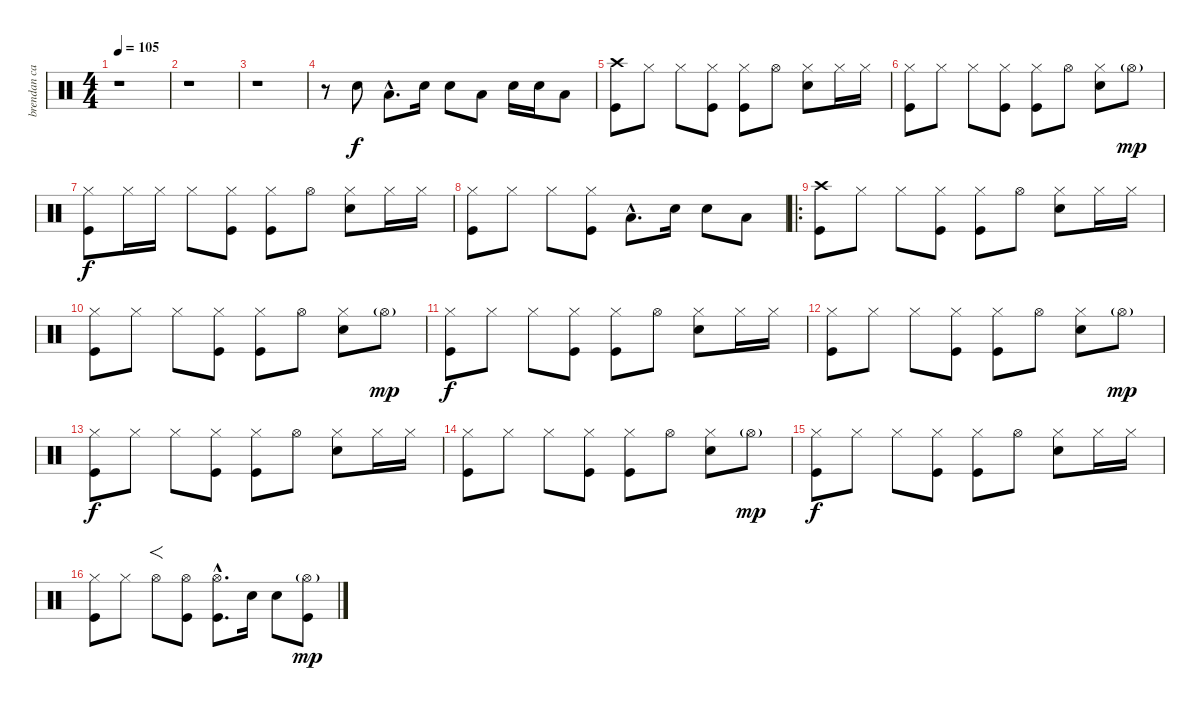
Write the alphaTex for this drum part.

\track ("brendan canty" "brendan ca") {instrument percussion}
\staff {score}
\articulation defaults
\ts (4 4)
\tempo 105
\clef neutral
\ks c
r.1{dy f} |
r.1 |
r.1 |
r.8 "Electric Snare (hit)".8 "Low Tom (hit)"{hac}.8{d} "Electric Snare (hit)".16 "Electric Snare (hit)".8 "Low Tom (hit)".8 "Electric Snare (hit)".16 "Electric Snare (hit)".16 "Low Floor Tom (hit)".8 |
("Crash high (hit)" "Kick (hit)").8 "Hi-Hat (closed)".8 "Hi-Hat (closed)".8 ("Hi-Hat (closed)" "Kick (hit)").8 ("Hi-Hat (closed)" "Kick (hit)").8 "Hi-Hat (open)".8 ("Hi-Hat (closed)" "Electric Snare (hit)").8 "Hi-Hat (closed)".16 "Hi-Hat (closed)".16 |
("Hi-Hat (closed)" "Kick (hit)").8 "Hi-Hat (closed)".8 "Hi-Hat (closed)".8 ("Hi-Hat (closed)" "Kick (hit)").8 ("Hi-Hat (closed)" "Kick (hit)").8 "Hi-Hat (open)".8 ("Hi-Hat (closed)" "Electric Snare (hit)").8 "Hi-Hat (open)"{g}.8{dy mp} |
("Hi-Hat (closed)" "Kick (hit)").8{dy f} "Hi-Hat (closed)".16 "Hi-Hat (closed)".16 "Hi-Hat (closed)".8 ("Hi-Hat (closed)" "Kick (hit)").8 ("Hi-Hat (closed)" "Kick (hit)").8 "Hi-Hat (open)".8 ("Hi-Hat (closed)" "Electric Snare (hit)").8 "Hi-Hat (closed)".16 "Hi-Hat (closed)".16 |
("Hi-Hat (closed)" "Kick (hit)").8 "Hi-Hat (closed)".8 "Hi-Hat (closed)".8 ("Hi-Hat (closed)" "Kick (hit)").8 "Low Tom (hit)"{hac}.8{d} "Electric Snare (hit)".16 "Electric Snare (hit)".8 "Low Floor Tom (hit)".8 |
\ro
("Crash high (hit)" "Kick (hit)").8 "Hi-Hat (closed)".8 "Hi-Hat (closed)".8 ("Hi-Hat (closed)" "Kick (hit)").8 ("Hi-Hat (closed)" "Kick (hit)").8 "Hi-Hat (open)".8 ("Hi-Hat (closed)" "Electric Snare (hit)").8 "Hi-Hat (closed)".16 "Hi-Hat (closed)".16 |
("Hi-Hat (closed)" "Kick (hit)").8 "Hi-Hat (closed)".8 "Hi-Hat (closed)".8 ("Hi-Hat (closed)" "Kick (hit)").8 ("Hi-Hat (closed)" "Kick (hit)").8 "Hi-Hat (open)".8 ("Hi-Hat (closed)" "Electric Snare (hit)").8 "Hi-Hat (open)"{g}.8{dy mp} |
("Hi-Hat (closed)" "Kick (hit)").8{dy f} "Hi-Hat (closed)".8 "Hi-Hat (closed)".8 ("Hi-Hat (closed)" "Kick (hit)").8 ("Hi-Hat (closed)" "Kick (hit)").8 "Hi-Hat (open)".8 ("Hi-Hat (closed)" "Electric Snare (hit)").8 "Hi-Hat (closed)".16 "Hi-Hat (closed)".16 |
("Hi-Hat (closed)" "Kick (hit)").8 "Hi-Hat (closed)".8 "Hi-Hat (closed)".8 ("Hi-Hat (closed)" "Kick (hit)").8 ("Hi-Hat (closed)" "Kick (hit)").8 "Hi-Hat (open)".8 ("Hi-Hat (closed)" "Electric Snare (hit)").8 "Hi-Hat (open)"{g}.8{dy mp} |
("Hi-Hat (closed)" "Kick (hit)").8{dy f} "Hi-Hat (closed)".8 "Hi-Hat (closed)".8 ("Hi-Hat (closed)" "Kick (hit)").8 ("Hi-Hat (closed)" "Kick (hit)").8 "Hi-Hat (open)".8 ("Hi-Hat (closed)" "Electric Snare (hit)").8 "Hi-Hat (closed)".16 "Hi-Hat (closed)".16 |
("Hi-Hat (closed)" "Kick (hit)").8 "Hi-Hat (closed)".8 "Hi-Hat (closed)".8 ("Hi-Hat (closed)" "Kick (hit)").8 ("Hi-Hat (closed)" "Kick (hit)").8 "Hi-Hat (open)".8 ("Hi-Hat (closed)" "Electric Snare (hit)").8 "Hi-Hat (open)"{g}.8{dy mp} |
("Hi-Hat (closed)" "Kick (hit)").8{dy f} "Hi-Hat (closed)".8 "Hi-Hat (closed)".8 ("Hi-Hat (closed)" "Kick (hit)").8 ("Hi-Hat (closed)" "Kick (hit)").8 "Hi-Hat (open)".8 ("Hi-Hat (closed)" "Electric Snare (hit)").8 "Hi-Hat (closed)".16 "Hi-Hat (closed)".16 |
("Hi-Hat (closed)" "Kick (hit)").8 "Hi-Hat (closed)".8 "Hi-Hat (open)".8{f} ("Hi-Hat (open)" "Kick (hit)").8 ("Hi-Hat (open)"{hac} "Kick (hit)"{hac}).8{d} "Electric Snare (hit)".16 "Electric Snare (hit)".8 ("Hi-Hat (open)"{g} "Kick (hit)").8{dy mp}
